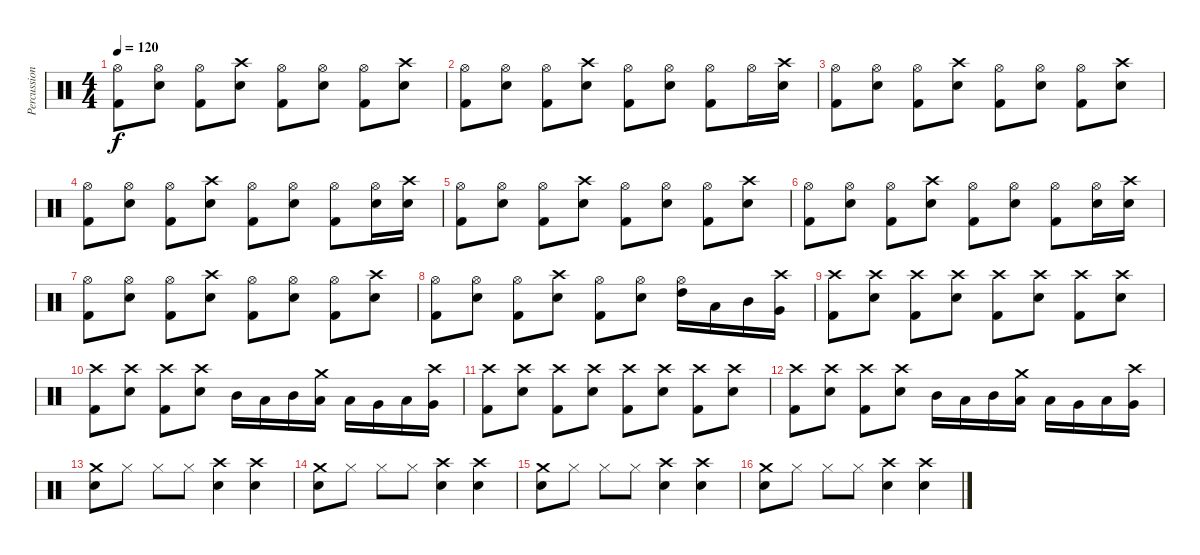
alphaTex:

\track ("Percussion" "Percussion") {instrument percussion}
\staff {score}
\articulation defaults
\ts (4 4)
\tempo 120
\clef neutral
\ks c
("Hi-Hat (open)" "Kick (hit) 2").8{dy f} ("Hi-Hat (open)" "Snare (hit) 2").8 ("Hi-Hat (open)" "Kick (hit) 2").8 ("Crash high (hit)" "Snare (hit) 2").8 ("Hi-Hat (open)" "Kick (hit) 2").8 ("Hi-Hat (open)" "Snare (hit) 2").8 ("Hi-Hat (open)" "Kick (hit) 2").8 ("Crash high (hit)" "Snare (hit) 2").8 |
("Hi-Hat (open)" "Kick (hit) 2").8 ("Hi-Hat (open)" "Snare (hit) 2").8 ("Hi-Hat (open)" "Kick (hit) 2").8 ("Crash high (hit)" "Snare (hit) 2").8 ("Hi-Hat (open)" "Kick (hit) 2").8 ("Hi-Hat (open)" "Snare (hit) 2").8 ("Hi-Hat (open)" "Kick (hit) 2").8 "Hi-Hat (open)".16 ("Crash high (hit)" "Snare (hit) 2").16 |
("Hi-Hat (open)" "Kick (hit) 2").8 ("Hi-Hat (open)" "Snare (hit) 2").8 ("Hi-Hat (open)" "Kick (hit) 2").8 ("Crash high (hit)" "Snare (hit) 2").8 ("Hi-Hat (open)" "Kick (hit) 2").8 ("Hi-Hat (open)" "Snare (hit) 2").8 ("Hi-Hat (open)" "Kick (hit) 2").8 ("Crash high (hit)" "Snare (hit) 2").8 |
("Hi-Hat (open)" "Kick (hit) 2").8 ("Hi-Hat (open)" "Snare (hit) 2").8 ("Hi-Hat (open)" "Kick (hit) 2").8 ("Crash high (hit)" "Snare (hit) 2").8 ("Hi-Hat (open)" "Kick (hit) 2").8 ("Hi-Hat (open)" "Snare (hit) 2").8 ("Hi-Hat (open)" "Kick (hit) 2").8 ("Hi-Hat (open)" "Snare (hit) 2").16 ("Crash high (hit)" "Snare (hit) 2").16 |
("Hi-Hat (open)" "Kick (hit) 2").8 ("Hi-Hat (open)" "Snare (hit) 2").8 ("Hi-Hat (open)" "Kick (hit) 2").8 ("Crash high (hit)" "Snare (hit) 2").8 ("Hi-Hat (open)" "Kick (hit) 2").8 ("Hi-Hat (open)" "Snare (hit) 2").8 ("Hi-Hat (open)" "Kick (hit) 2").8 ("Crash high (hit)" "Snare (hit) 2").8 |
("Hi-Hat (open)" "Kick (hit) 2").8 ("Hi-Hat (open)" "Snare (hit) 2").8 ("Hi-Hat (open)" "Kick (hit) 2").8 ("Crash high (hit)" "Snare (hit) 2").8 ("Hi-Hat (open)" "Kick (hit) 2").8 ("Hi-Hat (open)" "Snare (hit) 2").8 ("Hi-Hat (open)" "Kick (hit) 2").8 ("Hi-Hat (open)" "Snare (hit) 2").16 ("Crash high (hit)" "Snare (hit) 2").16 |
("Hi-Hat (open)" "Kick (hit) 2").8 ("Hi-Hat (open)" "Snare (hit) 2").8 ("Hi-Hat (open)" "Kick (hit) 2").8 ("Crash high (hit)" "Snare (hit) 2").8 ("Hi-Hat (open)" "Kick (hit) 2").8 ("Hi-Hat (open)" "Snare (hit) 2").8 ("Hi-Hat (open)" "Kick (hit) 2").8 ("Crash high (hit)" "Snare (hit) 2").8 |
("Hi-Hat (open)" "Kick (hit) 2").8 ("Hi-Hat (open)" "Snare (hit) 2").8 ("Hi-Hat (open)" "Kick (hit) 2").8 ("Crash high (hit)" "Snare (hit) 2").8 ("Hi-Hat (open)" "Kick (hit) 2").8 ("Hi-Hat (open)" "Snare (hit) 2").8 ("Hi-Hat (open)" "High Tom (hit)").16 "Low Tom (hit)".16 "Mid Tom (hit)".16 ("Crash high (hit)" "Very Low Tom (hit)").16 |
("Crash high (hit)" "Kick (hit) 2").8 ("Crash high (hit)" "Snare (hit) 2").8 ("Crash high (hit)" "Kick (hit) 2").8 ("Crash high (hit)" "Snare (hit) 2").8 ("Crash high (hit)" "Kick (hit) 2").8 ("Crash high (hit)" "Snare (hit) 2").8 ("Crash high (hit)" "Kick (hit) 2").8 ("Crash high (hit)" "Snare (hit) 2").8 |
("Crash high (hit)" "Kick (hit) 2").8 ("Crash high (hit)" "Snare (hit) 2").8 ("Crash high (hit)" "Kick (hit) 2").8 ("Crash high (hit)" "Snare (hit) 2").8 "Mid Tom (hit)".16 "Low Tom (hit)".16 "Mid Tom (hit)".16 ("Crash medium (hit)" "Low Tom (hit)").16 "Low Tom (hit)".16 "Very Low Tom (hit)".16 "Low Tom (hit)".16 ("Crash high (hit)" "Very Low Tom (hit)").16 |
("Crash high (hit)" "Kick (hit) 2").8 ("Crash high (hit)" "Snare (hit) 2").8 ("Crash high (hit)" "Kick (hit) 2").8 ("Crash high (hit)" "Snare (hit) 2").8 ("Crash high (hit)" "Kick (hit) 2").8 ("Crash high (hit)" "Snare (hit) 2").8 ("Crash high (hit)" "Kick (hit) 2").8 ("Crash high (hit)" "Snare (hit) 2").8 |
("Crash high (hit)" "Kick (hit) 2").8 ("Crash high (hit)" "Snare (hit) 2").8 ("Crash high (hit)" "Kick (hit) 2").8 ("Crash high (hit)" "Snare (hit) 2").8 "Mid Tom (hit)".16 "Low Tom (hit)".16 "Mid Tom (hit)".16 ("Crash medium (hit)" "Low Tom (hit)").16 "Low Tom (hit)".16 "Very Low Tom (hit)".16 "Low Tom (hit)".16 ("Crash high (hit)" "Very Low Tom (hit)").16 |
("Crash medium (hit)" "Snare (hit) 2").8 "Hi-Hat (closed)".8 "Hi-Hat (closed)".8 "Hi-Hat (closed)".8 ("Crash high (hit)" "Snare (hit) 2").4 ("Crash high (hit)" "Snare (hit) 2").4 |
("Crash medium (hit)" "Snare (hit) 2").8 "Hi-Hat (closed)".8 "Hi-Hat (closed)".8 "Hi-Hat (closed)".8 ("Crash high (hit)" "Snare (hit) 2").4 ("Crash high (hit)" "Snare (hit) 2").4 |
("Crash medium (hit)" "Snare (hit) 2").8 "Hi-Hat (closed)".8 "Hi-Hat (closed)".8 "Hi-Hat (closed)".8 ("Crash high (hit)" "Snare (hit) 2").4 ("Crash high (hit)" "Snare (hit) 2").4 |
("Crash medium (hit)" "Snare (hit) 2").8 "Hi-Hat (closed)".8 "Hi-Hat (closed)".8 "Hi-Hat (closed)".8 ("Crash high (hit)" "Snare (hit) 2").4 ("Crash high (hit)" "Snare (hit) 2").4
